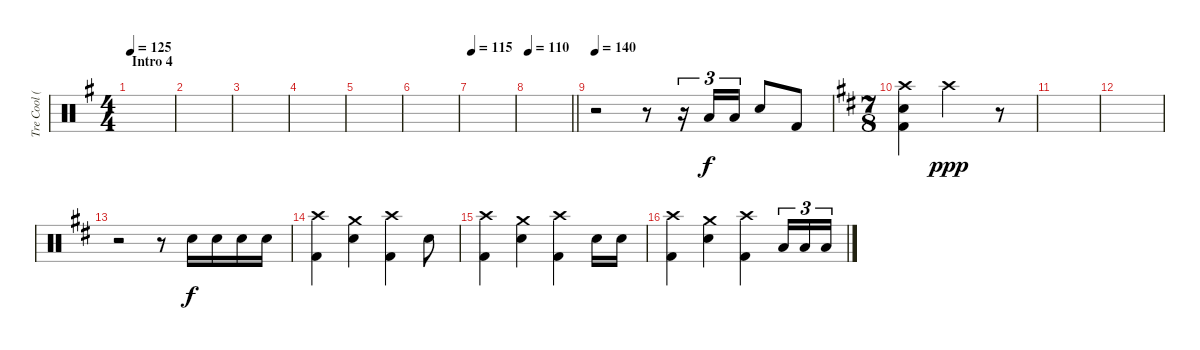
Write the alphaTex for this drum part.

\track ("Tre Cool (Drums)" "Tre Cool (") {instrument percussion}
\staff {score}
\articulation defaults
\ts (4 4)
\section ("" "Intro 4")
\tempo 125
\clef neutral
\ks g
|
|
|
|
|
|
\tempo 115
|
\tempo 110
\barLineRight lightlight
|
\tempo 140
r.2 r.8 r.16{tu (3 2)} "Low Tom (hit)".16{tu (3 2)} "Low Tom (hit)".16{tu (3 2)} "Electric Snare (hit)".8 "Kick (hit) 2".8 |
\ts (7 8)
\ks d
("Electric Snare (hit)" "Kick (hit) 2" "Crash high (hit)").4 "Crash high (hit)".2{dy ppp} r.8 |
|
|
r.2 r.8 "Electric Snare (hit)".16{dy f} "Electric Snare (hit)".16 "Electric Snare (hit)".16 "Electric Snare (hit)".16 |
("Crash high (hit)" "Kick (hit) 2").4 ("Crash medium (hit)" "Electric Snare (hit)").4 ("Crash high (hit)" "Kick (hit) 2").4 "Electric Snare (hit)".8 |
("Crash high (hit)" "Kick (hit) 2").4 ("Crash medium (hit)" "Electric Snare (hit)").4 ("Crash high (hit)" "Kick (hit) 2").4 "Electric Snare (hit)".16 "Electric Snare (hit)".16 |
("Crash high (hit)" "Kick (hit) 2").4 ("Crash medium (hit)" "Electric Snare (hit)").4 ("Crash high (hit)" "Kick (hit) 2").4 "Low Tom (hit)".16{tu (3 2)} "Low Tom (hit)".16{tu (3 2)} "Low Tom (hit)".16{tu (3 2)}
